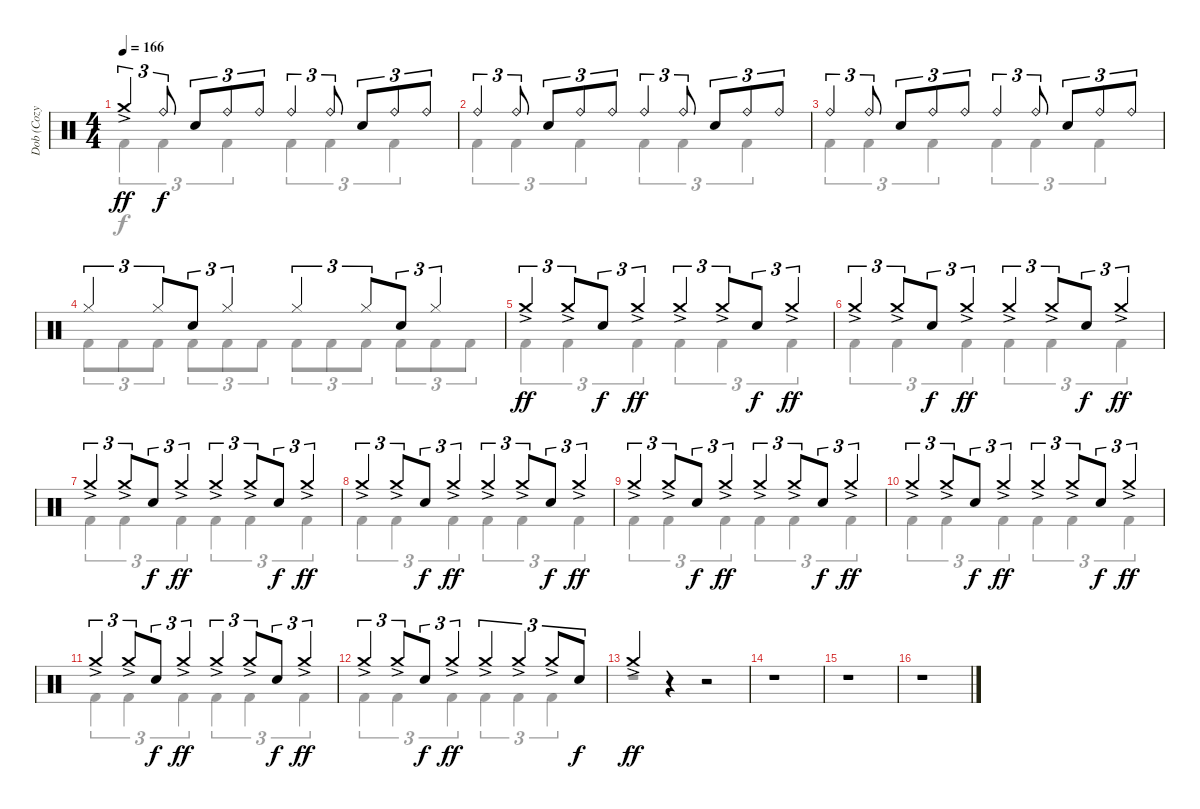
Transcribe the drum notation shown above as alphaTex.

\track ("Dob (Cozy Powell)" "Dob (Cozy ") {instrument percussion}
\staff {score}
\articulation defaults
\voice
\ts (4 4)
\tempo 166
\clef neutral
\ks c "Crash medium (hit)"{ac}.4{tu (3 2) dy ff} "Ride (bell)".8{tu (3 2) dy f} "Electric Snare (hit)".8{tu (3 2)} "Ride (bell)".8{tu (3 2)} "Ride (bell)".8{tu (3 2)} "Ride (bell)".4{tu (3 2)} "Ride (bell)".8{tu (3 2)} "Electric Snare (hit)".8{tu (3 2)} "Ride (bell)".8{tu (3 2)} "Ride (bell)".8{tu (3 2)}
|
"Ride (bell)".4{tu (3 2)} "Ride (bell)".8{tu (3 2)} "Electric Snare (hit)".8{tu (3 2)} "Ride (bell)".8{tu (3 2)} "Ride (bell)".8{tu (3 2)} "Ride (bell)".4{tu (3 2)} "Ride (bell)".8{tu (3 2)} "Electric Snare (hit)".8{tu (3 2)} "Ride (bell)".8{tu (3 2)} "Ride (bell)".8{tu (3 2)} |
"Ride (bell)".4{tu (3 2)} "Ride (bell)".8{tu (3 2)} "Electric Snare (hit)".8{tu (3 2)} "Ride (bell)".8{tu (3 2)} "Ride (bell)".8{tu (3 2)} "Ride (bell)".4{tu (3 2)} "Ride (bell)".8{tu (3 2)} "Electric Snare (hit)".8{tu (3 2)} "Ride (bell)".8{tu (3 2)} "Ride (bell)".8{tu (3 2)} |
"Hi-Hat (closed)".4{tu (3 2)} "Hi-Hat (closed)".8{tu (3 2) beam merge} "Electric Snare (hit)".8{tu (3 2)} "Hi-Hat (closed)".4{tu (3 2)} "Hi-Hat (closed)".4{tu (3 2)} "Hi-Hat (closed)".8{tu (3 2) beam merge} "Electric Snare (hit)".8{tu (3 2)} "Hi-Hat (closed)".4{tu (3 2)} |
"Crash medium (hit)"{ac}.4{tu (3 2) dy ff} "Crash medium (hit)"{ac}.8{tu (3 2) beam merge} "Electric Snare (hit)".8{tu (3 2) dy f} "Crash medium (hit)"{ac}.4{tu (3 2) dy ff} "Crash medium (hit)"{ac}.4{tu (3 2)} "Crash medium (hit)"{ac}.8{tu (3 2) beam merge} "Electric Snare (hit)".8{tu (3 2) dy f} "Crash medium (hit)"{ac}.4{tu (3 2) dy ff} |
"Crash medium (hit)"{ac}.4{tu (3 2)} "Crash medium (hit)"{ac}.8{tu (3 2) beam merge} "Electric Snare (hit)".8{tu (3 2) dy f} "Crash medium (hit)"{ac}.4{tu (3 2) dy ff} "Crash medium (hit)"{ac}.4{tu (3 2)} "Crash medium (hit)"{ac}.8{tu (3 2) beam merge} "Electric Snare (hit)".8{tu (3 2) dy f} "Crash medium (hit)"{ac}.4{tu (3 2) dy ff} |
"Crash medium (hit)"{ac}.4{tu (3 2)} "Crash medium (hit)"{ac}.8{tu (3 2) beam merge} "Electric Snare (hit)".8{tu (3 2) dy f} "Crash medium (hit)"{ac}.4{tu (3 2) dy ff} "Crash medium (hit)"{ac}.4{tu (3 2)} "Crash medium (hit)"{ac}.8{tu (3 2) beam merge} "Electric Snare (hit)".8{tu (3 2) dy f} "Crash medium (hit)"{ac}.4{tu (3 2) dy ff} |
"Crash medium (hit)"{ac}.4{tu (3 2)} "Crash medium (hit)"{ac}.8{tu (3 2) beam merge} "Electric Snare (hit)".8{tu (3 2) dy f} "Crash medium (hit)"{ac}.4{tu (3 2) dy ff} "Crash medium (hit)"{ac}.4{tu (3 2)} "Crash medium (hit)"{ac}.8{tu (3 2) beam merge} "Electric Snare (hit)".8{tu (3 2) dy f} "Crash medium (hit)"{ac}.4{tu (3 2) dy ff} |
"Crash medium (hit)"{ac}.4{tu (3 2)} "Crash medium (hit)"{ac}.8{tu (3 2) beam merge} "Electric Snare (hit)".8{tu (3 2) dy f} "Crash medium (hit)"{ac}.4{tu (3 2) dy ff} "Crash medium (hit)"{ac}.4{tu (3 2)} "Crash medium (hit)"{ac}.8{tu (3 2) beam merge} "Electric Snare (hit)".8{tu (3 2) dy f} "Crash medium (hit)"{ac}.4{tu (3 2) dy ff} |
"Crash medium (hit)"{ac}.4{tu (3 2)} "Crash medium (hit)"{ac}.8{tu (3 2) beam merge} "Electric Snare (hit)".8{tu (3 2) dy f} "Crash medium (hit)"{ac}.4{tu (3 2) dy ff} "Crash medium (hit)"{ac}.4{tu (3 2)} "Crash medium (hit)"{ac}.8{tu (3 2) beam merge} "Electric Snare (hit)".8{tu (3 2) dy f} "Crash medium (hit)"{ac}.4{tu (3 2) dy ff} |
"Crash medium (hit)"{ac}.4{tu (3 2)} "Crash medium (hit)"{ac}.8{tu (3 2) beam merge} "Electric Snare (hit)".8{tu (3 2) dy f} "Crash medium (hit)"{ac}.4{tu (3 2) dy ff} "Crash medium (hit)"{ac}.4{tu (3 2)} "Crash medium (hit)"{ac}.8{tu (3 2) beam merge} "Electric Snare (hit)".8{tu (3 2) dy f} "Crash medium (hit)"{ac}.4{tu (3 2) dy ff} |
"Crash medium (hit)"{ac}.4{tu (3 2)} "Crash medium (hit)"{ac}.8{tu (3 2) beam merge} "Electric Snare (hit)".8{tu (3 2) dy f} "Crash medium (hit)"{ac}.4{tu (3 2) dy ff} "Crash medium (hit)"{ac}.4{tu (3 2)} "Crash medium (hit)"{ac}.4{tu (3 2)} "Crash medium (hit)"{ac}.8{tu (3 2)} "Electric Snare (hit)".8{tu (3 2) dy f} |
"Crash medium (hit)"{ac}.4{dy ff} r.4 r.2 |
r.1 |
r.1 |
r.1
\voice
\clef neutral
\ottava regular
\simile none
\ks c "Kick (hit) 2".4{tu (3 2) dy f} "Kick (hit) 2".4{tu (3 2)} "Kick (hit) 2".4{tu (3 2)} "Kick (hit) 2".4{tu (3 2)} "Kick (hit) 2".4{tu (3 2)} "Kick (hit) 2".4{tu (3 2)}
|
"Kick (hit) 2".4{tu (3 2)} "Kick (hit) 2".4{tu (3 2)} "Kick (hit) 2".4{tu (3 2)} "Kick (hit) 2".4{tu (3 2)} "Kick (hit) 2".4{tu (3 2)} "Kick (hit) 2".4{tu (3 2)} |
"Kick (hit) 2".4{tu (3 2)} "Kick (hit) 2".4{tu (3 2)} "Kick (hit) 2".4{tu (3 2)} "Kick (hit) 2".4{tu (3 2)} "Kick (hit) 2".4{tu (3 2)} "Kick (hit) 2".4{tu (3 2)} |
"Kick (hit) 2".8{tu (3 2)} "Kick (hit) 2".8{tu (3 2)} "Kick (hit) 2".8{tu (3 2)} "Kick (hit) 2".8{tu (3 2)} "Kick (hit) 2".8{tu (3 2)} "Kick (hit) 2".8{tu (3 2)} "Kick (hit) 2".8{tu (3 2)} "Kick (hit) 2".8{tu (3 2)} "Kick (hit) 2".8{tu (3 2)} "Kick (hit) 2".8{tu (3 2)} "Kick (hit) 2".8{tu (3 2)} "Kick (hit) 2".8{tu (3 2)} |
"Kick (hit) 2".4{tu (3 2)} "Kick (hit) 2".4{tu (3 2)} "Kick (hit) 2".4{tu (3 2)} "Kick (hit) 2".4{tu (3 2)} "Kick (hit) 2".4{tu (3 2)} "Kick (hit) 2".4{tu (3 2)} |
"Kick (hit) 2".4{tu (3 2)} "Kick (hit) 2".4{tu (3 2)} "Kick (hit) 2".4{tu (3 2)} "Kick (hit) 2".4{tu (3 2)} "Kick (hit) 2".4{tu (3 2)} "Kick (hit) 2".4{tu (3 2)} |
"Kick (hit) 2".4{tu (3 2)} "Kick (hit) 2".4{tu (3 2)} "Kick (hit) 2".4{tu (3 2)} "Kick (hit) 2".4{tu (3 2)} "Kick (hit) 2".4{tu (3 2)} "Kick (hit) 2".4{tu (3 2)} |
"Kick (hit) 2".4{tu (3 2)} "Kick (hit) 2".4{tu (3 2)} "Kick (hit) 2".4{tu (3 2)} "Kick (hit) 2".4{tu (3 2)} "Kick (hit) 2".4{tu (3 2)} "Kick (hit) 2".4{tu (3 2)} |
"Kick (hit) 2".4{tu (3 2)} "Kick (hit) 2".4{tu (3 2)} "Kick (hit) 2".4{tu (3 2)} "Kick (hit) 2".4{tu (3 2)} "Kick (hit) 2".4{tu (3 2)} "Kick (hit) 2".4{tu (3 2)} |
"Kick (hit) 2".4{tu (3 2)} "Kick (hit) 2".4{tu (3 2)} "Kick (hit) 2".4{tu (3 2)} "Kick (hit) 2".4{tu (3 2)} "Kick (hit) 2".4{tu (3 2)} "Kick (hit) 2".4{tu (3 2)} |
"Kick (hit) 2".4{tu (3 2)} "Kick (hit) 2".4{tu (3 2)} "Kick (hit) 2".4{tu (3 2)} "Kick (hit) 2".4{tu (3 2)} "Kick (hit) 2".4{tu (3 2)} "Kick (hit) 2".4{tu (3 2)} |
"Kick (hit) 2".4{tu (3 2)} "Kick (hit) 2".4{tu (3 2)} "Kick (hit) 2".4{tu (3 2)} "Kick (hit) 2".4{tu (3 2)} "Kick (hit) 2".4{tu (3 2)} "Kick (hit) 2".4{tu (3 2)} |
r.1 |
r.1 |
r.1 |
r.1
